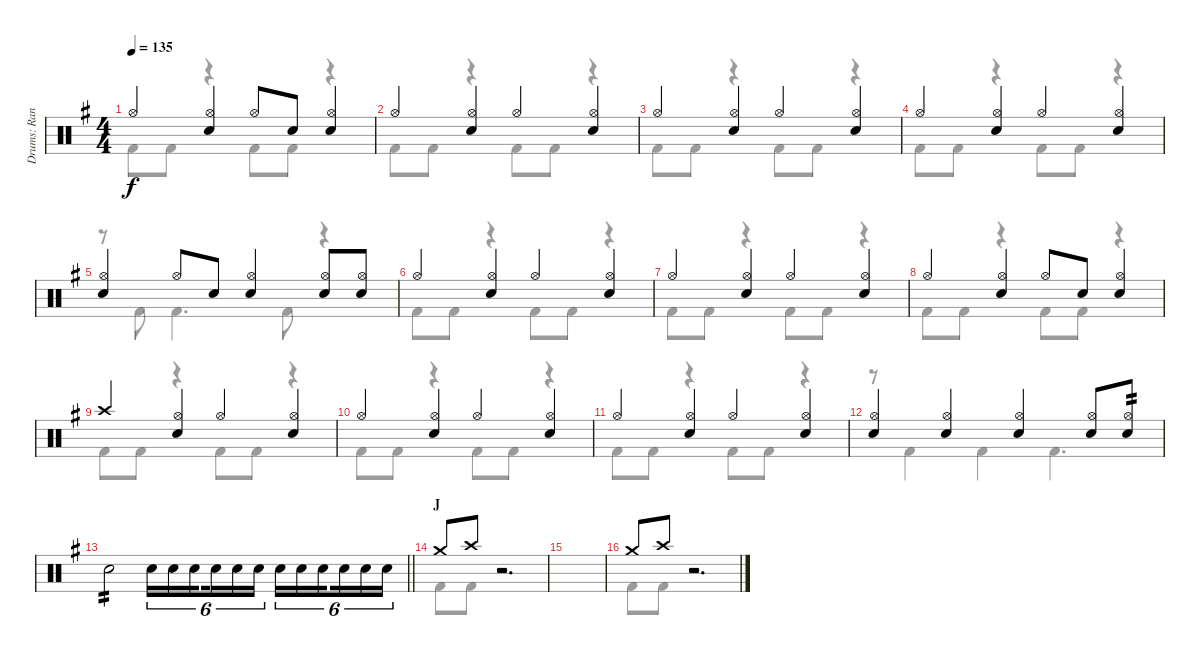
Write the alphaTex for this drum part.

\track ("Drums: Randy" "Drums: Ran") {instrument percussion}
\staff {score}
\articulation defaults
\voice
\ts (4 4)
\tempo 135
\clef neutral
\ks g "Hi-Hat (open)".4{dy f}
("Hi-Hat (open)" "Snare (hit) 2").4 "Hi-Hat (open)".8 "Snare (hit) 2".8 ("Hi-Hat (open)" "Snare (hit) 2").4 |
"Hi-Hat (open)".4 ("Hi-Hat (open)" "Snare (hit) 2").4 "Hi-Hat (open)".4 ("Hi-Hat (open)" "Snare (hit) 2").4 |
"Hi-Hat (open)".4 ("Hi-Hat (open)" "Snare (hit) 2").4 "Hi-Hat (open)".4 ("Hi-Hat (open)" "Snare (hit) 2").4 |
"Hi-Hat (open)".4 ("Hi-Hat (open)" "Snare (hit) 2").4 "Hi-Hat (open)".4 ("Hi-Hat (open)" "Snare (hit) 2").4 |
("Hi-Hat (open)" "Snare (hit) 2").4 "Hi-Hat (open)".8 "Snare (hit) 2".8 ("Hi-Hat (open)" "Snare (hit) 2").4 ("Hi-Hat (open)" "Snare (hit) 2").8 ("Hi-Hat (open)" "Snare (hit) 2").8 |
"Hi-Hat (open)".4 ("Hi-Hat (open)" "Snare (hit) 2").4 "Hi-Hat (open)".4 ("Hi-Hat (open)" "Snare (hit) 2").4 |
"Hi-Hat (open)".4 ("Hi-Hat (open)" "Snare (hit) 2").4 "Hi-Hat (open)".4 ("Hi-Hat (open)" "Snare (hit) 2").4 |
"Hi-Hat (open)".4 ("Hi-Hat (open)" "Snare (hit) 2").4 "Hi-Hat (open)".8 "Snare (hit) 2".8 ("Hi-Hat (open)" "Snare (hit) 2").4 |
"Crash high (hit)".4 ("Hi-Hat (open)" "Snare (hit) 2").4 "Hi-Hat (open)".4 ("Hi-Hat (open)" "Snare (hit) 2").4 |
"Hi-Hat (open)".4 ("Hi-Hat (open)" "Snare (hit) 2").4 "Hi-Hat (open)".4 ("Hi-Hat (open)" "Snare (hit) 2").4 |
"Hi-Hat (open)".4 ("Hi-Hat (open)" "Snare (hit) 2").4 "Hi-Hat (open)".4 ("Hi-Hat (open)" "Snare (hit) 2").4 |
("Hi-Hat (open)" "Snare (hit) 2").4 ("Hi-Hat (open)" "Snare (hit) 2").4 ("Hi-Hat (open)" "Snare (hit) 2").4 ("Hi-Hat (open)" "Snare (hit) 2").8 ("Hi-Hat (open)" "Snare (hit) 2").8{tp 2} |
\barLineRight lightlight "Snare (hit) 2".2{tp 2} "Snare (hit) 2".16{tu (6 4)} "Snare (hit) 2".16{tu (6 4)} "Snare (hit) 2".16{tu (6 4) beam splitsecondary} "Snare (hit) 2".16{tu (6 4)} "Snare (hit) 2".16{tu (6 4)} "Snare (hit) 2".16{tu (6 4)} "Snare (hit) 2".16{tu (6 4)} "Snare (hit) 2".16{tu (6 4)} "Snare (hit) 2".16{tu (6 4) beam splitsecondary} "Snare (hit) 2".16{tu (6 4)} "Snare (hit) 2".16{tu (6 4)} "Snare (hit) 2".16{tu (6 4)}
|
\section ("" "J")
"Crash medium (hit)".8 "Crash high (hit)".8 r.2{d} |
|
"Crash medium (hit)".8 "Crash high (hit)".8 r.2{d}
\voice
\clef neutral
\ottava regular
\simile none
\ks g "Kick (hit) 2".8{dy f} "Kick (hit) 2".8
r.4 "Kick (hit) 2".8 "Kick (hit) 2".8 r.4 |
"Kick (hit) 2".8 "Kick (hit) 2".8 r.4 "Kick (hit) 2".8 "Kick (hit) 2".8 r.4 |
"Kick (hit) 2".8 "Kick (hit) 2".8 r.4 "Kick (hit) 2".8 "Kick (hit) 2".8 r.4 |
"Kick (hit) 2".8 "Kick (hit) 2".8 r.4 "Kick (hit) 2".8 "Kick (hit) 2".8 r.4 |
r.8 "Kick (hit) 2".8 "Kick (hit) 2".4{d} "Kick (hit) 2".8 r.4 |
"Kick (hit) 2".8 "Kick (hit) 2".8 r.4 "Kick (hit) 2".8 "Kick (hit) 2".8 r.4 |
"Kick (hit) 2".8 "Kick (hit) 2".8 r.4 "Kick (hit) 2".8 "Kick (hit) 2".8 r.4 |
"Kick (hit) 2".8 "Kick (hit) 2".8 r.4 "Kick (hit) 2".8 "Kick (hit) 2".8 r.4 |
"Kick (hit) 2".8 "Kick (hit) 2".8 r.4 "Kick (hit) 2".8 "Kick (hit) 2".8 r.4 |
"Kick (hit) 2".8 "Kick (hit) 2".8 r.4 "Kick (hit) 2".8 "Kick (hit) 2".8 r.4 |
"Kick (hit) 2".8 "Kick (hit) 2".8 r.4 "Kick (hit) 2".8 "Kick (hit) 2".8 r.4 |
r.8 "Kick (hit) 2".4 "Kick (hit) 2".4 "Kick (hit) 2".4{d} |
\barLineRight lightlight
|
"Kick (hit) 2".8 "Kick (hit) 2".8 r.2{d} |
|
"Kick (hit) 2".8 "Kick (hit) 2".8 r.2{d}
